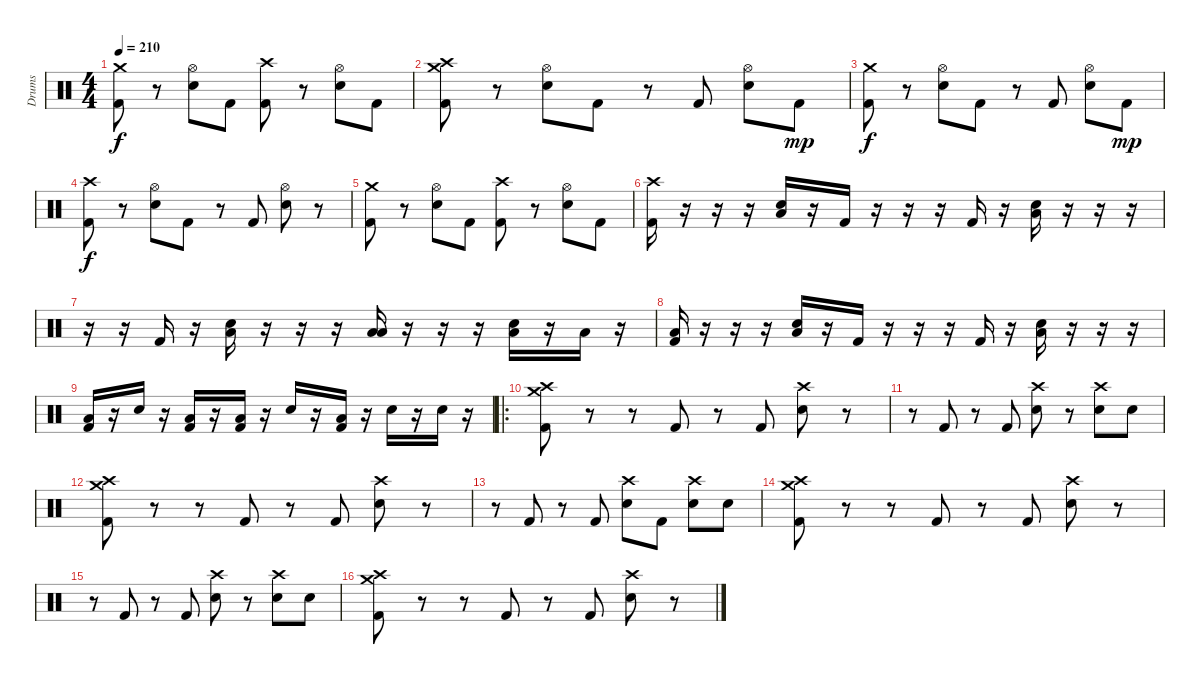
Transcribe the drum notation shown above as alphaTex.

\track ("Drums" "Drums") {instrument percussion}
\staff {score}
\articulation defaults
\ts (4 4)
\tempo 210
\clef neutral
\ks c
("Crash medium (hit)" "Kick (hit) 2").8{dy f} r.8 ("Hi-Hat (open)" "Electric Snare (hit)").8 "Kick (hit) 2".8 ("Crash high (hit)" "Kick (hit) 2").8 r.8 ("Hi-Hat (open)" "Electric Snare (hit)").8 "Kick (hit) 2".8 |
("Crash high (hit)" "Crash medium (hit)" "Kick (hit) 2").8 r.8 ("Hi-Hat (open)" "Electric Snare (hit)").8 "Kick (hit) 2".8 r.8 "Kick (hit) 2".8 ("Hi-Hat (open)" "Electric Snare (hit)").8 "Kick (hit) 2".8{dy mp} |
("Crash medium (hit)" "Kick (hit) 2").8{dy f} r.8 ("Hi-Hat (open)" "Electric Snare (hit)").8 "Kick (hit) 2".8 r.8 "Kick (hit) 2".8 ("Hi-Hat (open)" "Electric Snare (hit)").8 "Kick (hit) 2".8{dy mp} |
("Crash high (hit)" "Kick (hit) 2").8{dy f} r.8 ("Hi-Hat (open)" "Electric Snare (hit)").8 "Kick (hit) 2".8 r.8 "Kick (hit) 2".8 ("Hi-Hat (open)" "Electric Snare (hit)").8 r.8 |
("Crash medium (hit)" "Kick (hit) 2").8 r.8 ("Hi-Hat (open)" "Electric Snare (hit)").8 "Kick (hit) 2".8 ("Crash high (hit)" "Kick (hit) 2").8 r.8 ("Hi-Hat (open)" "Electric Snare (hit)").8 "Kick (hit) 2".8 |
("Crash high (hit)" "Kick (hit) 2").16 r.16 r.16 r.16 ("Low Floor Tom (hit)" "Electric Snare (hit)").16 r.16 "Kick (hit) 2".16 r.16 r.16 r.16 "Kick (hit) 2".16 r.16 ("Low Floor Tom (hit)" "Electric Snare (hit)").16 r.16 r.16 r.16 |
r.16 r.16 "Kick (hit) 2".16 r.16 ("Low Floor Tom (hit)" "Electric Snare (hit)").16 r.16 r.16 r.16 ("Low Floor Tom (hit)" "Low Floor Tom (hit)").16 r.16 r.16 r.16 ("Low Floor Tom (hit)" "Electric Snare (hit)").16 r.16 "Low Floor Tom (hit)".16 r.16 |
("Low Floor Tom (hit)" "Kick (hit) 2").16 r.16 r.16 r.16 ("Low Floor Tom (hit)" "Electric Snare (hit)").16 r.16 "Kick (hit) 2".16 r.16 r.16 r.16 "Kick (hit) 2".16 r.16 ("Low Floor Tom (hit)" "Electric Snare (hit)").16 r.16 r.16 r.16 |
("Low Floor Tom (hit)" "Kick (hit) 2").16 r.16 "Electric Snare (hit)".16 r.16 ("Low Floor Tom (hit)" "Kick (hit) 2").16 r.16 ("Low Floor Tom (hit)" "Kick (hit) 2").16 r.16 "Electric Snare (hit)".16 r.16 ("Low Floor Tom (hit)" "Kick (hit) 2").16 r.16 "Electric Snare (hit)".16 r.16 "Electric Snare (hit)".16 r.16 |
\ro
("Crash high (hit)" "Crash medium (hit)" "Kick (hit) 2").8 r.8 r.8 "Kick (hit) 2".8 r.8 "Kick (hit) 2".8 ("Crash high (hit)" "Electric Snare (hit)").8 r.8 |
r.8 "Kick (hit) 2".8 r.8 "Kick (hit) 2".8 ("Crash high (hit)" "Electric Snare (hit)").8 r.8 ("Crash high (hit)" "Electric Snare (hit)").8 "Electric Snare (hit)".8 |
("Crash high (hit)" "Crash medium (hit)" "Kick (hit) 2").8 r.8 r.8 "Kick (hit) 2".8 r.8 "Kick (hit) 2".8 ("Crash high (hit)" "Electric Snare (hit)").8 r.8 |
r.8 "Kick (hit) 2".8 r.8 "Kick (hit) 2".8 ("Crash high (hit)" "Electric Snare (hit)").8 "Kick (hit) 2".8 ("Crash high (hit)" "Electric Snare (hit)").8 "Electric Snare (hit)".8 |
("Crash high (hit)" "Crash medium (hit)" "Kick (hit) 2").8 r.8 r.8 "Kick (hit) 2".8 r.8 "Kick (hit) 2".8 ("Crash high (hit)" "Electric Snare (hit)").8 r.8 |
r.8 "Kick (hit) 2".8 r.8 "Kick (hit) 2".8 ("Crash high (hit)" "Electric Snare (hit)").8 r.8 ("Crash high (hit)" "Electric Snare (hit)").8 "Electric Snare (hit)".8 |
("Crash high (hit)" "Crash medium (hit)" "Kick (hit) 2").8 r.8 r.8 "Kick (hit) 2".8 r.8 "Kick (hit) 2".8 ("Crash high (hit)" "Electric Snare (hit)").8 r.8
